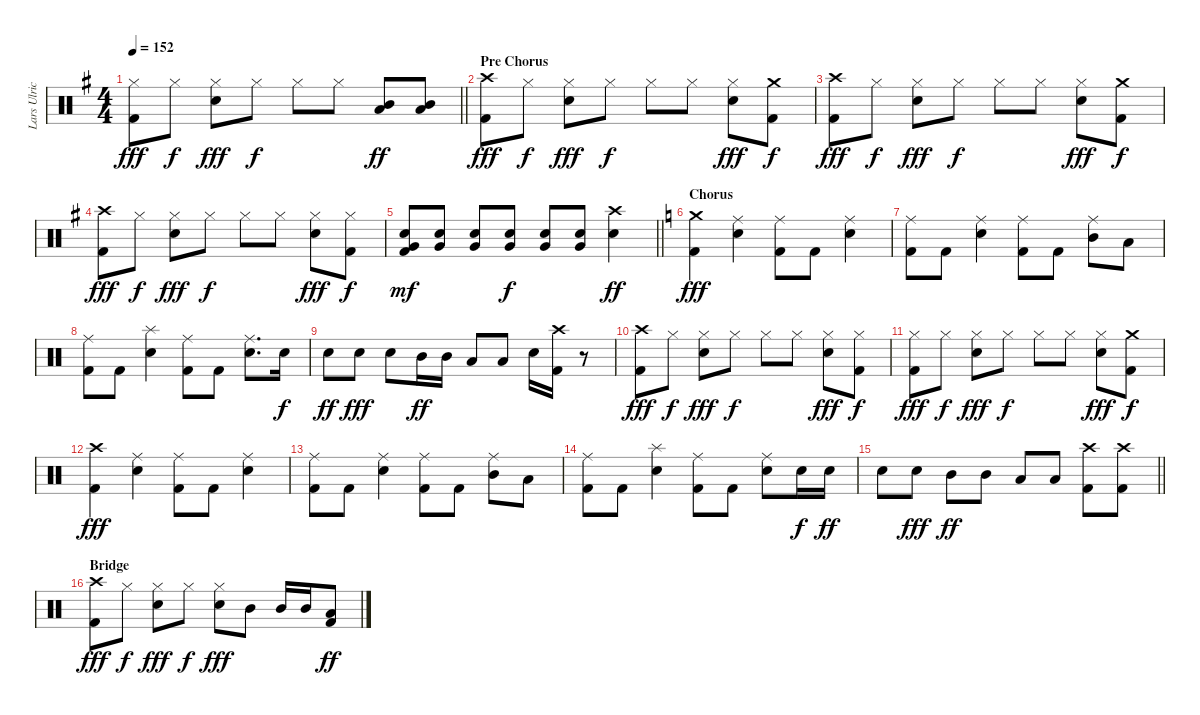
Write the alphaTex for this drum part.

\track ("Lars Ulrich" "Lars Ulric") {instrument percussion}
\staff {score}
\articulation defaults
\ts (4 4)
\tempo 152
\clef neutral
\barLineRight lightlight
\ks g
("Hi-Hat (closed)" "Kick (hit) 2").8{dy fff} "Hi-Hat (closed)".8{dy f} ("Hi-Hat (closed)" "Snare (hit) 2").8{dy fff} "Hi-Hat (closed)".8{dy f} "Hi-Hat (closed)".8 "Hi-Hat (closed)".8 ("Low Tom (hit)" "Mid Tom (hit)").8{dy ff} ("Low Tom (hit)" "Mid Tom (hit)").8 |
\section ("" "Pre Chorus")
("Crash high (hit)" "Kick (hit) 2").8{dy fff} "Hi-Hat (closed)".8{dy f} ("Hi-Hat (closed)" "Snare (hit) 2").8{dy fff} "Hi-Hat (closed)".8{dy f} "Hi-Hat (closed)".8 "Hi-Hat (closed)".8 ("Hi-Hat (closed)" "Snare (hit) 2").8{dy fff} ("Crash medium (hit)" "Kick (hit) 2").8{dy f} |
("Crash high (hit)" "Kick (hit) 2").8{dy fff} "Hi-Hat (closed)".8{dy f} ("Hi-Hat (closed)" "Snare (hit) 2").8{dy fff} "Hi-Hat (closed)".8{dy f} "Hi-Hat (closed)".8 "Hi-Hat (closed)".8 ("Hi-Hat (closed)" "Snare (hit) 2").8{dy fff} ("Crash medium (hit)" "Kick (hit) 2").8{dy f} |
("Crash high (hit)" "Kick (hit) 2").8{dy fff} "Hi-Hat (closed)".8{dy f} ("Hi-Hat (closed)" "Snare (hit) 2").8{dy fff} "Hi-Hat (closed)".8{dy f} "Hi-Hat (closed)".8 "Hi-Hat (closed)".8 ("Hi-Hat (closed)" "Snare (hit) 2").8{dy fff} ("Hi-Hat (closed)" "Kick (hit) 2").8{dy f} |
\barLineRight lightlight
("Very Low Tom (hit)" "Snare (hit) 2" "Kick (hit) 2").8{dy mf} ("Very Low Tom (hit)" "Snare (hit) 2").8 ("Very Low Tom (hit)" "Snare (hit) 2").8 ("Very Low Tom (hit)" "Snare (hit) 2").8{dy f} ("Very Low Tom (hit)" "Snare (hit) 2").8 ("Very Low Tom (hit)" "Snare (hit) 2").8 ("Crash high (hit)" "Snare (hit) 2").4{dy ff} |
\section ("" "Chorus")
\ks c
("Crash medium (hit)" "Kick (hit) 2").4{dy fff} ("Ride (middle)" "Snare (hit) 2").4 ("Ride (middle)" "Kick (hit) 2").8 "Kick (hit) 2".8 ("Ride (middle)" "Snare (hit) 2").4 |
("Ride (middle)" "Kick (hit) 2").8 "Kick (hit) 2".8 ("Ride (middle)" "Snare (hit) 2").4 ("Ride (middle)" "Kick (hit) 2").8 "Kick (hit) 2".8 ("Ride (middle)" "Mid Tom (hit)").8 "Low Tom (hit)".8 |
("Ride (middle)" "Kick (hit) 2").8 "Kick (hit) 2".8 ("Splash (hit)" "Snare (hit) 2").4 ("Ride (middle)" "Kick (hit) 2").8 "Kick (hit) 2".8 ("Ride (middle)" "Snare (hit) 2").8{d} "Snare (hit) 2".16{dy f} |
"Snare (hit) 2".8{dy ff} "Snare (hit) 2".8{dy fff} "Snare (hit) 2".8 "Mid Tom (hit)".16{dy ff} "Mid Tom (hit)".16 "Low Tom (hit)".8 "Low Tom (hit)".8 "Snare (hit) 2".16 ("Crash high (hit)" "Kick (hit) 2").16 r.8 |
("Crash high (hit)" "Kick (hit) 2").8{dy fff} "Hi-Hat (closed)".8{dy f} ("Hi-Hat (closed)" "Snare (hit) 2").8{dy fff} "Hi-Hat (closed)".8{dy f} "Hi-Hat (closed)".8 "Hi-Hat (closed)".8 ("Hi-Hat (closed)" "Snare (hit) 2").8{dy fff} ("Hi-Hat (closed)" "Kick (hit) 2").8{dy f} |
("Hi-Hat (closed)" "Kick (hit) 2").8{dy fff} "Hi-Hat (closed)".8{dy f} ("Hi-Hat (closed)" "Snare (hit) 2").8{dy fff} "Hi-Hat (closed)".8{dy f} "Hi-Hat (closed)".8 "Hi-Hat (closed)".8 ("Hi-Hat (closed)" "Snare (hit) 2").8{dy fff} ("Crash medium (hit)" "Kick (hit) 2").8{dy f} |
("Crash high (hit)" "Kick (hit) 2").4{dy fff} ("Ride (middle)" "Snare (hit) 2").4 ("Ride (middle)" "Kick (hit) 2").8 "Kick (hit) 2".8 ("Ride (middle)" "Snare (hit) 2").4 |
("Ride (middle)" "Kick (hit) 2").8 "Kick (hit) 2".8 ("Ride (middle)" "Snare (hit) 2").4 ("Ride (middle)" "Kick (hit) 2").8 "Kick (hit) 2".8 ("Ride (middle)" "Mid Tom (hit)").8 "Low Tom (hit)".8 |
("Ride (middle)" "Kick (hit) 2").8 "Kick (hit) 2".8 ("Splash (hit)" "Snare (hit) 2").4 ("Ride (middle)" "Kick (hit) 2").8 "Kick (hit) 2".8 ("Ride (middle)" "Snare (hit) 2").8 "Snare (hit) 2".16{dy f} "Snare (hit) 2".16{dy ff} |
\barLineRight lightlight "Snare (hit) 2".8 "Snare (hit) 2".8{dy fff} "Mid Tom (hit)".8{dy ff} "Mid Tom (hit)".8 "Low Tom (hit)".8 "Low Tom (hit)".8
("Crash high (hit)" "Kick (hit) 2").8 ("Crash high (hit)" "Kick (hit) 2").8 |
\section ("" "Bridge")
("Crash high (hit)" "Kick (hit) 2").8{dy fff} "Hi-Hat (closed)".8{dy f} ("Hi-Hat (closed)" "Snare (hit) 2").8{dy fff} "Hi-Hat (closed)".8{dy f} ("Hi-Hat (closed)" "Snare (hit) 2").8{dy fff} "Mid Tom (hit)".8 "Mid Tom (hit)".16 "Mid Tom (hit)".16 ("Low Tom (hit)" "Kick (hit) 2").8{dy ff}
